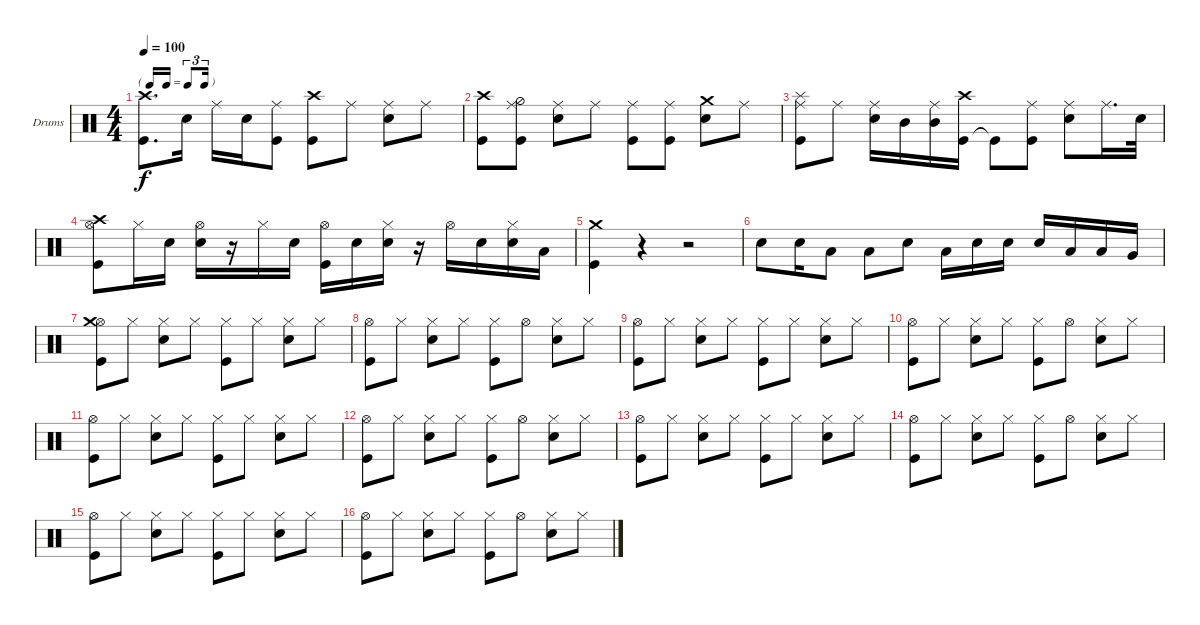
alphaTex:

\bracketExtendMode groupsimilarinstruments
\firstSystemTrackNameOrientation horizontal
\otherSystemsTrackNameOrientation horizontal
\track ("Drumkit" "Drums") {instrument percussion}
\staff {score}
\articulation defaults
\ts (4 4)
\tf triplet16th
\tempo 100
\clef neutral
\ks c
("Kick (hit)" "Crash high (hit)").8{d dy f} "Snare (hit) 2".16 "Ride (middle)".16 "Snare (hit) 2".16 ("Kick (hit)" "Ride (middle)").8 ("Kick (hit)" "Crash high (hit)").8 "Ride (middle)".8 ("Snare (hit) 2" "Ride (middle)").8 "Ride (middle)".8 |
("Kick (hit)" "Crash high (hit)").8 ("Kick (hit)" "Hi-Hat (half)" "Ride (middle)").8 ("Snare (hit) 2" "Ride (middle)").8 "Ride (middle)".8 ("Ride (middle)" "Kick (hit)").8 ("Ride (middle)" "Kick (hit)").8 ("Snare (hit) 2" "Crash medium (hit)").8 "Ride (middle)".8 |
("Kick (hit)" "Ride (middle)" "Splash (hit)").8 "Ride (middle)".8 ("Ride (middle)" "Snare (hit) 2").16 "Mid Tom (hit)".16 ("Ride (middle)" "Mid Tom (hit)").16 ("Kick (hit)" "Crash high (hit)").16 "Kick (hit)"{t}.8 ("Ride (middle)" "Kick (hit)").8 ("Ride (middle)" "Snare (hit) 2").8 "Ride (middle)".16{d} "Snare (hit) 2".32 |
("Kick (hit)" "Crash high (hit)" "Hi-Hat (open)").8 "Hi-Hat (closed)".16 "Snare (hit) 2".16 ("Snare (hit) 2" "Hi-Hat (open)").16 r.16 "Hi-Hat (closed)".16 "Snare (hit) 2".16 ("Hi-Hat (open)" "Kick (hit)").16 "Snare (hit) 2".16 ("Snare (hit) 2" "Hi-Hat (closed)").16 r.16 "Hi-Hat (open)".16 "Snare (hit) 2".16 ("Snare (hit) 2" "Hi-Hat (closed)").16 "Low Tom (hit)".16 |
("Kick (hit)" "Crash medium (hit)").4 r.4 r.2 |
"Snare (hit) 2".8 "Snare (hit) 2".16 "Low Tom (hit)".8 "Low Tom (hit)".8 "Snare (hit) 2".8 "Low Tom (hit)".16 "Snare (hit) 2".16 "Snare (hit) 2".16 "Snare (hit) 2".16 "Low Tom (hit)".16 "Low Tom (hit)".16 "Very Low Tom (hit)".16 |
("Kick (hit)" "Hi-Hat (open)" "Crash medium (hit)").8 "Hi-Hat (closed)".8 ("Hi-Hat (closed)" "Snare (hit) 2").8 "Hi-Hat (closed)".8 ("Hi-Hat (closed)" "Kick (hit)").8 "Hi-Hat (closed)".8 ("Hi-Hat (closed)" "Snare (hit) 2").8 "Hi-Hat (closed)".8 |
("Hi-Hat (open)" "Kick (hit)").8 "Hi-Hat (closed)".8 ("Hi-Hat (closed)" "Snare (hit) 2").8 "Hi-Hat (closed)".8 ("Hi-Hat (closed)" "Kick (hit)").8 "Hi-Hat (open)".8 ("Hi-Hat (closed)" "Snare (hit) 2").8 "Hi-Hat (closed)".8 |
("Kick (hit)" "Hi-Hat (open)").8 "Hi-Hat (closed)".8 ("Hi-Hat (closed)" "Snare (hit) 2").8 "Hi-Hat (closed)".8 ("Hi-Hat (closed)" "Kick (hit)").8 "Hi-Hat (closed)".8 ("Hi-Hat (closed)" "Snare (hit) 2").8 "Hi-Hat (closed)".8 |
("Hi-Hat (open)" "Kick (hit)").8 "Hi-Hat (closed)".8 ("Hi-Hat (closed)" "Snare (hit) 2").8 "Hi-Hat (closed)".8 ("Hi-Hat (closed)" "Kick (hit)").8 "Hi-Hat (open)".8 ("Hi-Hat (closed)" "Snare (hit) 2").8 "Hi-Hat (closed)".8 |
("Kick (hit)" "Hi-Hat (open)").8 "Hi-Hat (closed)".8 ("Hi-Hat (closed)" "Snare (hit) 2").8 "Hi-Hat (closed)".8 ("Hi-Hat (closed)" "Kick (hit)").8 "Hi-Hat (closed)".8 ("Hi-Hat (closed)" "Snare (hit) 2").8 "Hi-Hat (closed)".8 |
("Hi-Hat (open)" "Kick (hit)").8 "Hi-Hat (closed)".8 ("Hi-Hat (closed)" "Snare (hit) 2").8 "Hi-Hat (closed)".8 ("Hi-Hat (closed)" "Kick (hit)").8 "Hi-Hat (open)".8 ("Hi-Hat (closed)" "Snare (hit) 2").8 "Hi-Hat (closed)".8 |
("Kick (hit)" "Hi-Hat (open)").8 "Hi-Hat (closed)".8 ("Hi-Hat (closed)" "Snare (hit) 2").8 "Hi-Hat (closed)".8 ("Hi-Hat (closed)" "Kick (hit)").8 "Hi-Hat (closed)".8 ("Hi-Hat (closed)" "Snare (hit) 2").8 "Hi-Hat (closed)".8 |
("Hi-Hat (open)" "Kick (hit)").8 "Hi-Hat (closed)".8 ("Hi-Hat (closed)" "Snare (hit) 2").8 "Hi-Hat (closed)".8 ("Hi-Hat (closed)" "Kick (hit)").8 "Hi-Hat (open)".8 ("Hi-Hat (closed)" "Snare (hit) 2").8 "Hi-Hat (closed)".8 |
("Kick (hit)" "Hi-Hat (open)").8 "Hi-Hat (closed)".8 ("Hi-Hat (closed)" "Snare (hit) 2").8 "Hi-Hat (closed)".8 ("Hi-Hat (closed)" "Kick (hit)").8 "Hi-Hat (closed)".8 ("Hi-Hat (closed)" "Snare (hit) 2").8 "Hi-Hat (closed)".8 |
("Hi-Hat (open)" "Kick (hit)").8 "Hi-Hat (closed)".8 ("Hi-Hat (closed)" "Snare (hit) 2").8 "Hi-Hat (closed)".8 ("Hi-Hat (closed)" "Kick (hit)").8 "Hi-Hat (open)".8 ("Hi-Hat (closed)" "Snare (hit) 2").8 "Hi-Hat (closed)".8
